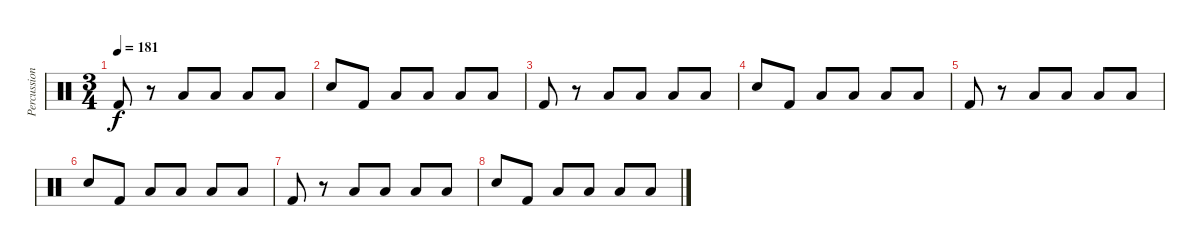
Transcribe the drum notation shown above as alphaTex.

\track ("Percussion" "Percussion") {instrument percussion}
\staff {score}
\articulation defaults
\ts (3 4)
\tempo 181
\clef neutral
\ks c "Kick (hit) 2".8{dy f}
r.8 "Low Floor Tom (hit)".8 "Low Floor Tom (hit)".8 "Low Floor Tom (hit)".8 "Low Floor Tom (hit)".8 |
"Snare (hit) 2".8 "Kick (hit) 2".8 "Low Floor Tom (hit)".8 "Low Floor Tom (hit)".8 "Low Floor Tom (hit)".8 "Low Floor Tom (hit)".8 |
"Kick (hit) 2".8 r.8 "Low Floor Tom (hit)".8 "Low Floor Tom (hit)".8 "Low Floor Tom (hit)".8 "Low Floor Tom (hit)".8 |
"Snare (hit) 2".8 "Kick (hit) 2".8 "Low Floor Tom (hit)".8 "Low Floor Tom (hit)".8 "Low Floor Tom (hit)".8 "Low Floor Tom (hit)".8 |
"Kick (hit) 2".8 r.8 "Low Floor Tom (hit)".8 "Low Floor Tom (hit)".8 "Low Floor Tom (hit)".8 "Low Floor Tom (hit)".8 |
"Snare (hit) 2".8 "Kick (hit) 2".8 "Low Floor Tom (hit)".8 "Low Floor Tom (hit)".8 "Low Floor Tom (hit)".8 "Low Floor Tom (hit)".8 |
"Kick (hit) 2".8 r.8 "Low Floor Tom (hit)".8 "Low Floor Tom (hit)".8 "Low Floor Tom (hit)".8 "Low Floor Tom (hit)".8 |
"Snare (hit) 2".8 "Kick (hit) 2".8 "Low Floor Tom (hit)".8 "Low Floor Tom (hit)".8 "Low Floor Tom (hit)".8 "Low Floor Tom (hit)".8
